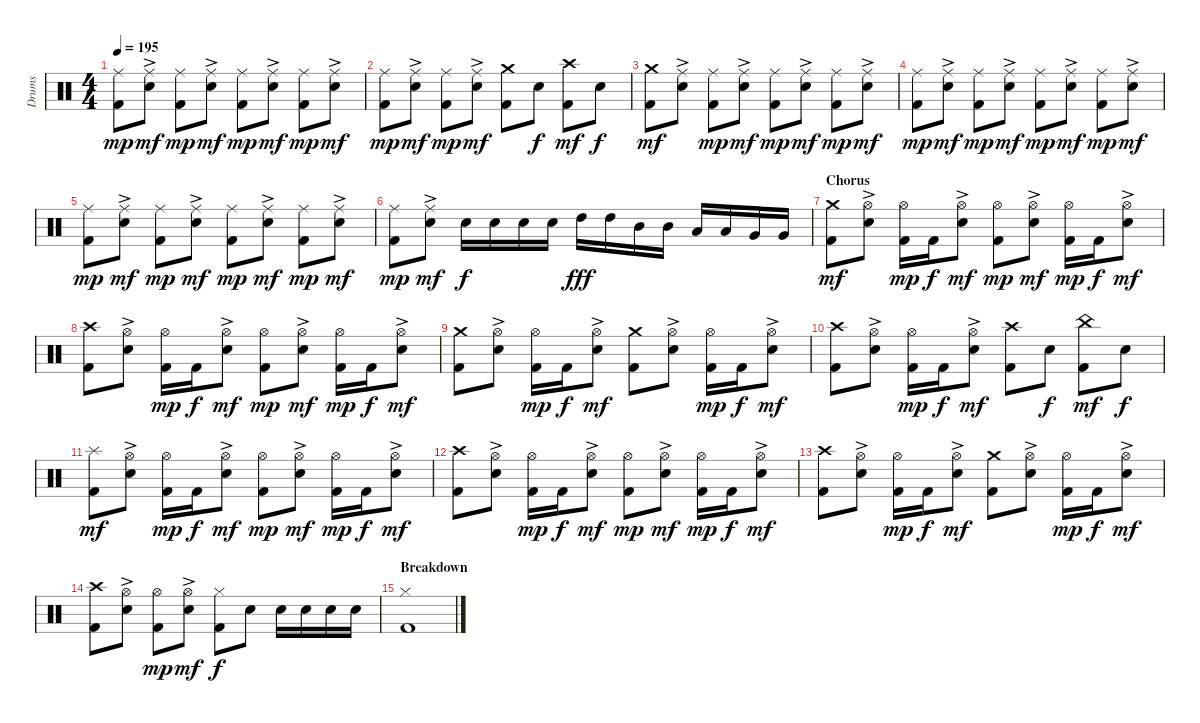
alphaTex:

\track ("Drums" "Drums") {instrument percussion}
\staff {score}
\articulation defaults
\ts (4 4)
\tempo 195
\clef neutral
\ks c
("Ride (middle)" "Kick (hit) 2").8{dy mp} ("Ride (middle)"{ac} "Electric Snare (hit)").8{dy mf} ("Ride (middle)" "Kick (hit) 2").8{dy mp} ("Ride (middle)"{ac} "Electric Snare (hit)").8{dy mf} ("Ride (middle)" "Kick (hit) 2").8{dy mp} ("Ride (middle)"{ac} "Electric Snare (hit)").8{dy mf} ("Ride (middle)" "Kick (hit) 2").8{dy mp} ("Ride (middle)"{ac} "Electric Snare (hit)").8{dy mf} |
("Ride (middle)" "Kick (hit) 2").8{dy mp} ("Ride (middle)"{ac} "Electric Snare (hit)").8{dy mf} ("Ride (middle)" "Kick (hit) 2").8{dy mp} ("Ride (middle)"{ac} "Electric Snare (hit)").8{dy mf} ("Crash medium (hit)" "Kick (hit) 2").8 "Electric Snare (hit)".8{dy f} ("Crash high (hit)" "Kick (hit) 2").8{dy mf} "Electric Snare (hit)".8{dy f} |
("Crash medium (hit)" "Kick (hit) 2").8{dy mf} ("Ride (middle)"{ac} "Electric Snare (hit)").8 ("Ride (middle)" "Kick (hit) 2").8{dy mp} ("Ride (middle)"{ac} "Electric Snare (hit)").8{dy mf} ("Ride (middle)" "Kick (hit) 2").8{dy mp} ("Ride (middle)"{ac} "Electric Snare (hit)").8{dy mf} ("Ride (middle)" "Kick (hit) 2").8{dy mp} ("Ride (middle)"{ac} "Electric Snare (hit)").8{dy mf} |
("Ride (middle)" "Kick (hit) 2").8{dy mp} ("Ride (middle)"{ac} "Electric Snare (hit)").8{dy mf} ("Ride (middle)" "Kick (hit) 2").8{dy mp} ("Ride (middle)"{ac} "Electric Snare (hit)").8{dy mf} ("Ride (middle)" "Kick (hit) 2").8{dy mp} ("Ride (middle)"{ac} "Electric Snare (hit)").8{dy mf} ("Ride (middle)" "Kick (hit) 2").8{dy mp} ("Ride (middle)"{ac} "Electric Snare (hit)").8{dy mf} |
("Ride (middle)" "Kick (hit) 2").8{dy mp} ("Ride (middle)"{ac} "Electric Snare (hit)").8{dy mf} ("Ride (middle)" "Kick (hit) 2").8{dy mp} ("Ride (middle)"{ac} "Electric Snare (hit)").8{dy mf} ("Ride (middle)" "Kick (hit) 2").8{dy mp} ("Ride (middle)"{ac} "Electric Snare (hit)").8{dy mf} ("Ride (middle)" "Kick (hit) 2").8{dy mp} ("Ride (middle)"{ac} "Electric Snare (hit)").8{dy mf} |
("Ride (middle)" "Kick (hit) 2").8{dy mp} ("Ride (middle)"{ac} "Electric Snare (hit)").8{dy mf} "Electric Snare (hit)".16{dy f} "Electric Snare (hit)".16 "Electric Snare (hit)".16 "Electric Snare (hit)".16 "High Tom (hit)".16{dy fff} "High Tom (hit)".16 "Mid Tom (hit)".16 "Mid Tom (hit)".16 "Low Tom (hit)".16 "Low Tom (hit)".16 "Very Low Tom (hit)".16 "Very Low Tom (hit)".16 |
\section ("" "Chorus")
("Crash medium (hit)" "Kick (hit) 2").8{dy mf} ("Hi-Hat (open)"{ac} "Electric Snare (hit)").8 ("Hi-Hat (open)" "Kick (hit) 2").16{dy mp} "Kick (hit) 2".16{dy f} ("Hi-Hat (open)"{ac} "Electric Snare (hit)").8{dy mf} ("Hi-Hat (open)" "Kick (hit) 2").8{dy mp} ("Hi-Hat (open)"{ac} "Electric Snare (hit)").8{dy mf} ("Hi-Hat (open)" "Kick (hit) 2").16{dy mp} "Kick (hit) 2".16{dy f} ("Hi-Hat (open)"{ac} "Electric Snare (hit)").8{dy mf} |
("Crash high (hit)" "Kick (hit) 2").8 ("Hi-Hat (open)"{ac} "Electric Snare (hit)").8 ("Hi-Hat (open)" "Kick (hit) 2").16{dy mp} "Kick (hit) 2".16{dy f} ("Hi-Hat (open)"{ac} "Electric Snare (hit)").8{dy mf} ("Hi-Hat (open)" "Kick (hit) 2").8{dy mp} ("Hi-Hat (open)"{ac} "Electric Snare (hit)").8{dy mf} ("Hi-Hat (open)" "Kick (hit) 2").16{dy mp} "Kick (hit) 2".16{dy f} ("Hi-Hat (open)"{ac} "Electric Snare (hit)").8{dy mf} |
("Crash medium (hit)" "Kick (hit) 2").8 ("Hi-Hat (open)"{ac} "Electric Snare (hit)").8 ("Hi-Hat (open)" "Kick (hit) 2").16{dy mp} "Kick (hit) 2".16{dy f} ("Hi-Hat (open)"{ac} "Electric Snare (hit)").8{dy mf} ("Crash medium (hit)" "Kick (hit) 2").8 ("Hi-Hat (open)"{ac} "Electric Snare (hit)").8 ("Hi-Hat (open)" "Kick (hit) 2").16{dy mp} "Kick (hit) 2".16{dy f} ("Hi-Hat (open)"{ac} "Electric Snare (hit)").8{dy mf} |
("Crash high (hit)" "Kick (hit) 2").8 ("Hi-Hat (open)"{ac} "Electric Snare (hit)").8 ("Hi-Hat (open)" "Kick (hit) 2").16{dy mp} "Kick (hit) 2".16{dy f} ("Hi-Hat (open)"{ac} "Electric Snare (hit)").8{dy mf} ("Crash high (hit)" "Kick (hit) 2").8 "Electric Snare (hit)".8{dy f} ("China (hit)" "Kick (hit) 2").8{dy mf} "Electric Snare (hit)".8{dy f} |
("Splash (hit)" "Kick (hit) 2").8{dy mf} ("Hi-Hat (open)"{ac} "Electric Snare (hit)").8 ("Hi-Hat (open)" "Kick (hit) 2").16{dy mp} "Kick (hit) 2".16{dy f} ("Hi-Hat (open)"{ac} "Electric Snare (hit)").8{dy mf} ("Hi-Hat (open)" "Kick (hit) 2").8{dy mp} ("Hi-Hat (open)"{ac} "Electric Snare (hit)").8{dy mf} ("Hi-Hat (open)" "Kick (hit) 2").16{dy mp} "Kick (hit) 2".16{dy f} ("Hi-Hat (open)"{ac} "Electric Snare (hit)").8{dy mf} |
("Crash high (hit)" "Kick (hit) 2").8 ("Hi-Hat (open)"{ac} "Electric Snare (hit)").8 ("Hi-Hat (open)" "Kick (hit) 2").16{dy mp} "Kick (hit) 2".16{dy f} ("Hi-Hat (open)"{ac} "Electric Snare (hit)").8{dy mf} ("Hi-Hat (open)" "Kick (hit) 2").8{dy mp} ("Hi-Hat (open)"{ac} "Electric Snare (hit)").8{dy mf} ("Hi-Hat (open)" "Kick (hit) 2").16{dy mp} "Kick (hit) 2".16{dy f} ("Hi-Hat (open)"{ac} "Electric Snare (hit)").8{dy mf} |
("Crash high (hit)" "Kick (hit) 2").8 ("Hi-Hat (open)"{ac} "Electric Snare (hit)").8 ("Hi-Hat (open)" "Kick (hit) 2").16{dy mp} "Kick (hit) 2".16{dy f} ("Hi-Hat (open)"{ac} "Electric Snare (hit)").8{dy mf} ("Crash medium (hit)" "Kick (hit) 2").8 ("Hi-Hat (open)"{ac} "Electric Snare (hit)").8 ("Hi-Hat (open)" "Kick (hit) 2").16{dy mp} "Kick (hit) 2".16{dy f} ("Hi-Hat (open)"{ac} "Electric Snare (hit)").8{dy mf} |
("Crash high (hit)" "Kick (hit) 2").8 ("Hi-Hat (open)"{ac} "Electric Snare (hit)").8 ("Hi-Hat (open)" "Kick (hit) 2").8{dy mp} ("Hi-Hat (open)"{ac} "Electric Snare (hit)").8{dy mf} ("Hi-Hat (closed)" "Kick (hit) 2").8{dy f} "Electric Snare (hit)".8 "Electric Snare (hit)".16 "Electric Snare (hit)".16 "Electric Snare (hit)".16 "Electric Snare (hit)".16 |
\section ("" "Breakdown")
("Hi-Hat (closed)" "Kick (hit) 2").1
